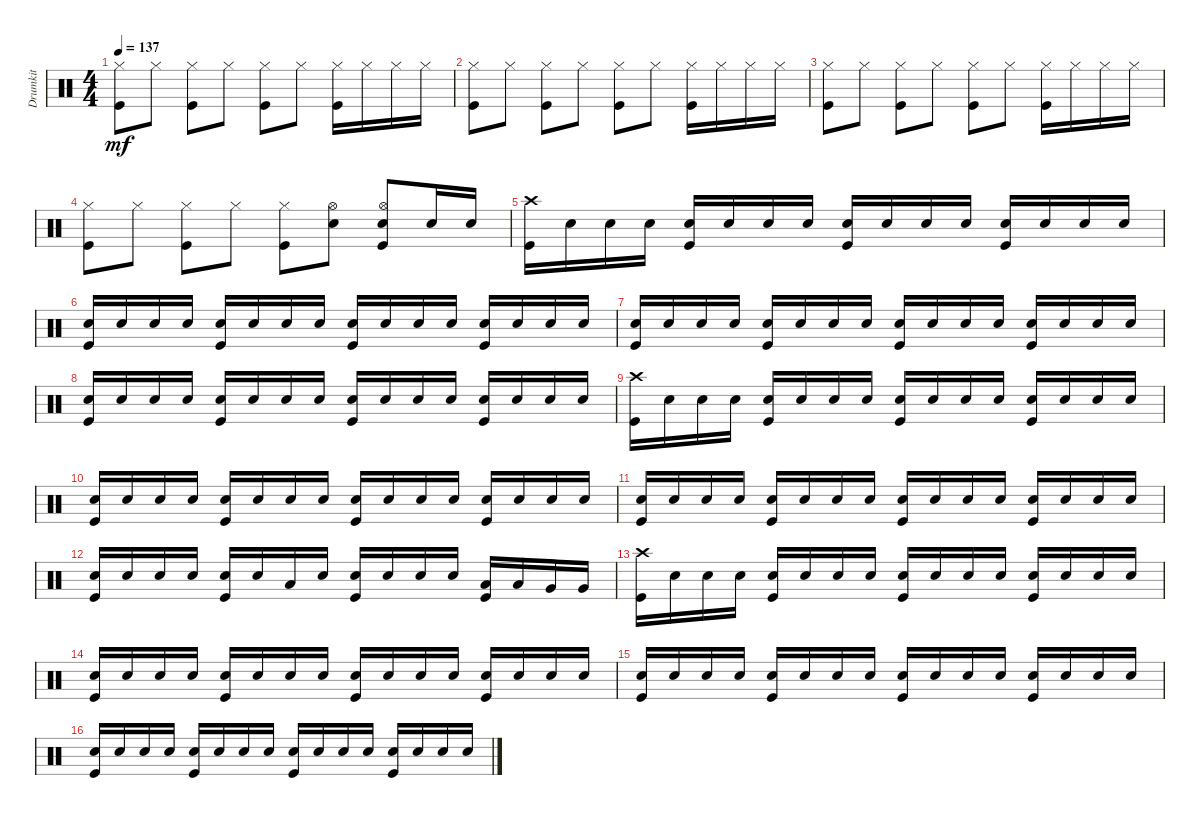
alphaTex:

\track ("Drumkit" "Drumkit") {instrument percussion}
\staff {score}
\articulation defaults
\ts (4 4)
\tempo 137
\clef neutral
\ks c
("Hi-Hat (closed)" "Kick (hit)").8{dy mf} "Hi-Hat (closed)".8 ("Hi-Hat (closed)" "Kick (hit)").8 "Hi-Hat (closed)".8 ("Hi-Hat (closed)" "Kick (hit)").8 "Hi-Hat (closed)".8 ("Hi-Hat (closed)" "Kick (hit)").16 "Hi-Hat (closed)".16 "Hi-Hat (closed)".16 "Hi-Hat (closed)".16 |
("Hi-Hat (closed)" "Kick (hit)").8 "Hi-Hat (closed)".8 ("Hi-Hat (closed)" "Kick (hit)").8 "Hi-Hat (closed)".8 ("Hi-Hat (closed)" "Kick (hit)").8 "Hi-Hat (closed)".8 ("Hi-Hat (closed)" "Kick (hit)").16 "Hi-Hat (closed)".16 "Hi-Hat (closed)".16 "Hi-Hat (closed)".16 |
("Hi-Hat (closed)" "Kick (hit)").8 "Hi-Hat (closed)".8 ("Hi-Hat (closed)" "Kick (hit)").8 "Hi-Hat (closed)".8 ("Hi-Hat (closed)" "Kick (hit)").8 "Hi-Hat (closed)".8 ("Hi-Hat (closed)" "Kick (hit)").16 "Hi-Hat (closed)".16 "Hi-Hat (closed)".16 "Hi-Hat (closed)".16 |
("Hi-Hat (closed)" "Kick (hit)").8 "Hi-Hat (closed)".8 ("Hi-Hat (closed)" "Kick (hit)").8 "Hi-Hat (closed)".8 ("Hi-Hat (closed)" "Kick (hit)").8 ("Hi-Hat (open)" "Snare (hit) 2").8 ("Hi-Hat (open)" "Snare (hit) 2" "Kick (hit)").8 "Snare (hit) 2".16 "Snare (hit) 2".16 |
("Crash high (hit)" "Kick (hit)").16 "Snare (hit) 2".16 "Snare (hit) 2".16 "Snare (hit) 2".16 ("Snare (hit) 2" "Kick (hit)").16 "Snare (hit) 2".16 "Snare (hit) 2".16 "Snare (hit) 2".16 ("Snare (hit) 2" "Kick (hit)").16 "Snare (hit) 2".16 "Snare (hit) 2".16 "Snare (hit) 2".16 ("Snare (hit) 2" "Kick (hit)").16 "Snare (hit) 2".16 "Snare (hit) 2".16 "Snare (hit) 2".16 |
("Snare (hit) 2" "Kick (hit)").16 "Snare (hit) 2".16 "Snare (hit) 2".16 "Snare (hit) 2".16 ("Snare (hit) 2" "Kick (hit)").16 "Snare (hit) 2".16 "Snare (hit) 2".16 "Snare (hit) 2".16 ("Snare (hit) 2" "Kick (hit)").16 "Snare (hit) 2".16 "Snare (hit) 2".16 "Snare (hit) 2".16 ("Snare (hit) 2" "Kick (hit)").16 "Snare (hit) 2".16 "Snare (hit) 2".16 "Snare (hit) 2".16 |
("Snare (hit) 2" "Kick (hit)").16 "Snare (hit) 2".16 "Snare (hit) 2".16 "Snare (hit) 2".16 ("Snare (hit) 2" "Kick (hit)").16 "Snare (hit) 2".16 "Snare (hit) 2".16 "Snare (hit) 2".16 ("Snare (hit) 2" "Kick (hit)").16 "Snare (hit) 2".16 "Snare (hit) 2".16 "Snare (hit) 2".16 ("Snare (hit) 2" "Kick (hit)").16 "Snare (hit) 2".16 "Snare (hit) 2".16 "Snare (hit) 2".16 |
("Snare (hit) 2" "Kick (hit)").16 "Snare (hit) 2".16 "Snare (hit) 2".16 "Snare (hit) 2".16 ("Snare (hit) 2" "Kick (hit)").16 "Snare (hit) 2".16 "Snare (hit) 2".16 "Snare (hit) 2".16 ("Snare (hit) 2" "Kick (hit)").16 "Snare (hit) 2".16 "Snare (hit) 2".16 "Snare (hit) 2".16 ("Snare (hit) 2" "Kick (hit)").16 "Snare (hit) 2".16 "Snare (hit) 2".16 "Snare (hit) 2".16 |
("Crash high (hit)" "Kick (hit)").16 "Snare (hit) 2".16 "Snare (hit) 2".16 "Snare (hit) 2".16 ("Snare (hit) 2" "Kick (hit)").16 "Snare (hit) 2".16 "Snare (hit) 2".16 "Snare (hit) 2".16 ("Snare (hit) 2" "Kick (hit)").16 "Snare (hit) 2".16 "Snare (hit) 2".16 "Snare (hit) 2".16 ("Snare (hit) 2" "Kick (hit)").16 "Snare (hit) 2".16 "Snare (hit) 2".16 "Snare (hit) 2".16 |
("Snare (hit) 2" "Kick (hit)").16 "Snare (hit) 2".16 "Snare (hit) 2".16 "Snare (hit) 2".16 ("Snare (hit) 2" "Kick (hit)").16 "Snare (hit) 2".16 "Snare (hit) 2".16 "Snare (hit) 2".16 ("Snare (hit) 2" "Kick (hit)").16 "Snare (hit) 2".16 "Snare (hit) 2".16 "Snare (hit) 2".16 ("Snare (hit) 2" "Kick (hit)").16 "Snare (hit) 2".16 "Snare (hit) 2".16 "Snare (hit) 2".16 |
("Snare (hit) 2" "Kick (hit)").16 "Snare (hit) 2".16 "Snare (hit) 2".16 "Snare (hit) 2".16 ("Snare (hit) 2" "Kick (hit)").16 "Snare (hit) 2".16 "Snare (hit) 2".16 "Snare (hit) 2".16 ("Snare (hit) 2" "Kick (hit)").16 "Snare (hit) 2".16 "Snare (hit) 2".16 "Snare (hit) 2".16 ("Snare (hit) 2" "Kick (hit)").16 "Snare (hit) 2".16 "Snare (hit) 2".16 "Snare (hit) 2".16 |
("Snare (hit) 2" "Kick (hit)").16 "Snare (hit) 2".16 "Snare (hit) 2".16 "Snare (hit) 2".16 ("Snare (hit) 2" "Kick (hit)").16 "Snare (hit) 2".16 "Low Tom (hit)".16 "Snare (hit) 2".16 ("Snare (hit) 2" "Kick (hit)").16 "Snare (hit) 2".16 "Snare (hit) 2".16 "Snare (hit) 2".16 ("Low Tom (hit)" "Kick (hit)").16 "Low Tom (hit)".16 "Very Low Tom (hit)".16 "Very Low Tom (hit)".16 |
("Crash high (hit)" "Kick (hit)").16 "Snare (hit) 2".16 "Snare (hit) 2".16 "Snare (hit) 2".16 ("Snare (hit) 2" "Kick (hit)").16 "Snare (hit) 2".16 "Snare (hit) 2".16 "Snare (hit) 2".16 ("Snare (hit) 2" "Kick (hit)").16 "Snare (hit) 2".16 "Snare (hit) 2".16 "Snare (hit) 2".16 ("Snare (hit) 2" "Kick (hit)").16 "Snare (hit) 2".16 "Snare (hit) 2".16 "Snare (hit) 2".16 |
("Snare (hit) 2" "Kick (hit)").16 "Snare (hit) 2".16 "Snare (hit) 2".16 "Snare (hit) 2".16 ("Snare (hit) 2" "Kick (hit)").16 "Snare (hit) 2".16 "Snare (hit) 2".16 "Snare (hit) 2".16 ("Snare (hit) 2" "Kick (hit)").16 "Snare (hit) 2".16 "Snare (hit) 2".16 "Snare (hit) 2".16 ("Snare (hit) 2" "Kick (hit)").16 "Snare (hit) 2".16 "Snare (hit) 2".16 "Snare (hit) 2".16 |
("Snare (hit) 2" "Kick (hit)").16 "Snare (hit) 2".16 "Snare (hit) 2".16 "Snare (hit) 2".16 ("Snare (hit) 2" "Kick (hit)").16 "Snare (hit) 2".16 "Snare (hit) 2".16 "Snare (hit) 2".16 ("Snare (hit) 2" "Kick (hit)").16 "Snare (hit) 2".16 "Snare (hit) 2".16 "Snare (hit) 2".16 ("Snare (hit) 2" "Kick (hit)").16 "Snare (hit) 2".16 "Snare (hit) 2".16 "Snare (hit) 2".16 |
("Snare (hit) 2" "Kick (hit)").16 "Snare (hit) 2".16 "Snare (hit) 2".16 "Snare (hit) 2".16 ("Snare (hit) 2" "Kick (hit)").16 "Snare (hit) 2".16 "Snare (hit) 2".16 "Snare (hit) 2".16 ("Snare (hit) 2" "Kick (hit)").16 "Snare (hit) 2".16 "Snare (hit) 2".16 "Snare (hit) 2".16 ("Snare (hit) 2" "Kick (hit)").16 "Snare (hit) 2".16 "Snare (hit) 2".16 "Snare (hit) 2".16
